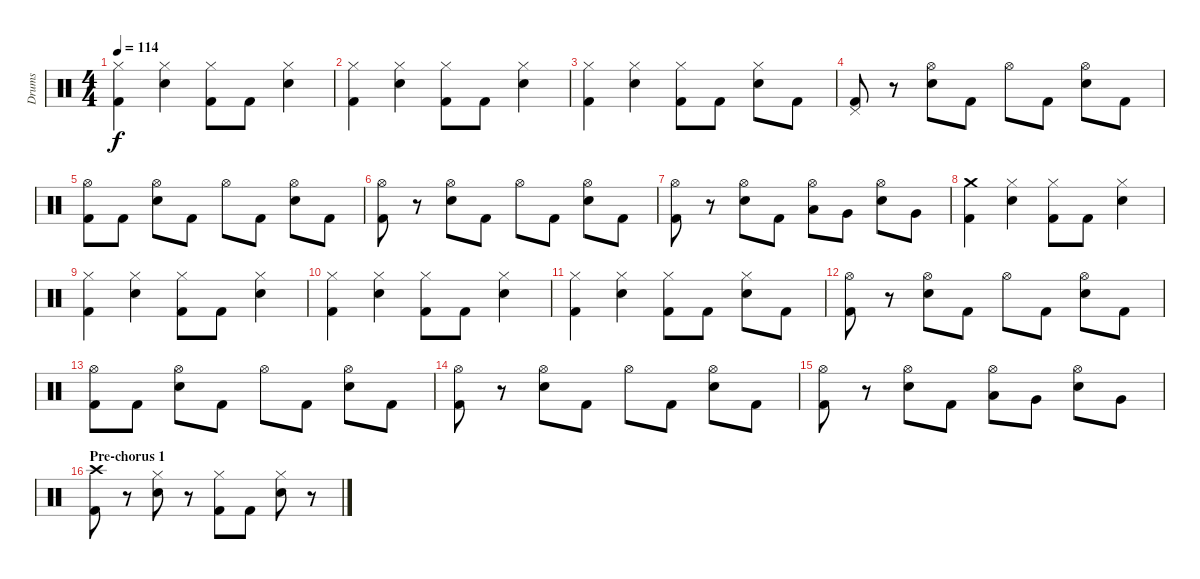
\track ("Drums" "Drums") {instrument percussion}
\staff {score}
\articulation defaults
\ts (4 4)
\tempo 114
\clef neutral
\ks c
("Kick (hit) 2" "Hi-Hat (closed)").4{dy f} ("Electric Snare (hit)" "Hi-Hat (closed)").4 ("Kick (hit) 2" "Hi-Hat (closed)").8 "Kick (hit) 2".8 ("Electric Snare (hit)" "Hi-Hat (closed)").4 |
("Kick (hit) 2" "Hi-Hat (closed)").4 ("Electric Snare (hit)" "Hi-Hat (closed)").4 ("Kick (hit) 2" "Hi-Hat (closed)").8 "Kick (hit) 2".8 ("Electric Snare (hit)" "Hi-Hat (closed)").4 |
("Kick (hit) 2" "Hi-Hat (closed)").4 ("Electric Snare (hit)" "Hi-Hat (closed)").4 ("Kick (hit) 2" "Hi-Hat (closed)").8 "Kick (hit) 2".8 ("Electric Snare (hit)" "Hi-Hat (closed)").8 "Kick (hit) 2".8 |
("Kick (hit) 2" "Pedal Hi-Hat (hit)").8 r.8 ("Electric Snare (hit)" "Hi-Hat (open)").8 "Kick (hit) 2".8 "Hi-Hat (open)".8 "Kick (hit) 2".8 ("Electric Snare (hit)" "Hi-Hat (open)").8 "Kick (hit) 2".8 |
("Kick (hit) 2" "Hi-Hat (open)").8 "Kick (hit) 2".8 ("Electric Snare (hit)" "Hi-Hat (open)").8 "Kick (hit) 2".8 "Hi-Hat (open)".8 "Kick (hit) 2".8 ("Electric Snare (hit)" "Hi-Hat (open)").8 "Kick (hit) 2".8 |
("Kick (hit) 2" "Hi-Hat (open)").8 r.8 ("Electric Snare (hit)" "Hi-Hat (open)").8 "Kick (hit) 2".8 "Hi-Hat (open)".8 "Kick (hit) 2".8 ("Electric Snare (hit)" "Hi-Hat (open)").8 "Kick (hit) 2".8 |
("Kick (hit) 2" "Hi-Hat (open)").8 r.8 ("Electric Snare (hit)" "Hi-Hat (open)").8 "Kick (hit) 2".8 ("Low Tom (hit)" "Hi-Hat (open)").8 "Very Low Tom (hit)".8 ("Electric Snare (hit)" "Hi-Hat (open)").8 "Very Low Tom (hit)".8 |
("Kick (hit) 2" "Crash medium (hit)").4 ("Electric Snare (hit)" "Hi-Hat (closed)").4 ("Kick (hit) 2" "Hi-Hat (closed)").8 "Kick (hit) 2".8 ("Electric Snare (hit)" "Hi-Hat (closed)").4 |
("Kick (hit) 2" "Hi-Hat (closed)").4 ("Electric Snare (hit)" "Hi-Hat (closed)").4 ("Kick (hit) 2" "Hi-Hat (closed)").8 "Kick (hit) 2".8 ("Electric Snare (hit)" "Hi-Hat (closed)").4 |
("Kick (hit) 2" "Hi-Hat (closed)").4 ("Electric Snare (hit)" "Hi-Hat (closed)").4 ("Kick (hit) 2" "Hi-Hat (closed)").8 "Kick (hit) 2".8 ("Electric Snare (hit)" "Hi-Hat (closed)").4 |
("Kick (hit) 2" "Hi-Hat (closed)").4 ("Electric Snare (hit)" "Hi-Hat (closed)").4 ("Kick (hit) 2" "Hi-Hat (closed)").8 "Kick (hit) 2".8 ("Electric Snare (hit)" "Hi-Hat (closed)").8 "Kick (hit) 2".8 |
("Kick (hit) 2" "Hi-Hat (open)").8 r.8 ("Electric Snare (hit)" "Hi-Hat (open)").8 "Kick (hit) 2".8 "Hi-Hat (open)".8 "Kick (hit) 2".8 ("Electric Snare (hit)" "Hi-Hat (open)").8 "Kick (hit) 2".8 |
("Kick (hit) 2" "Hi-Hat (open)").8 "Kick (hit) 2".8 ("Electric Snare (hit)" "Hi-Hat (open)").8 "Kick (hit) 2".8 "Hi-Hat (open)".8 "Kick (hit) 2".8 ("Electric Snare (hit)" "Hi-Hat (open)").8 "Kick (hit) 2".8 |
("Kick (hit) 2" "Hi-Hat (open)").8 r.8 ("Electric Snare (hit)" "Hi-Hat (open)").8 "Kick (hit) 2".8 "Hi-Hat (open)".8 "Kick (hit) 2".8 ("Electric Snare (hit)" "Hi-Hat (open)").8 "Kick (hit) 2".8 |
("Kick (hit) 2" "Hi-Hat (open)").8 r.8 ("Electric Snare (hit)" "Hi-Hat (open)").8 "Kick (hit) 2".8 ("Low Tom (hit)" "Hi-Hat (open)").8 "Very Low Tom (hit)".8 ("Electric Snare (hit)" "Hi-Hat (open)").8 "Very Low Tom (hit)".8 |
\section ("" "Pre-chorus 1")
("Kick (hit) 2" "Crash high (hit)").8 r.8 ("Electric Snare (hit)" "Hi-Hat (closed)").8 r.8 ("Kick (hit) 2" "Hi-Hat (closed)").8 "Kick (hit) 2".8 ("Electric Snare (hit)" "Hi-Hat (closed)").8 r.8
